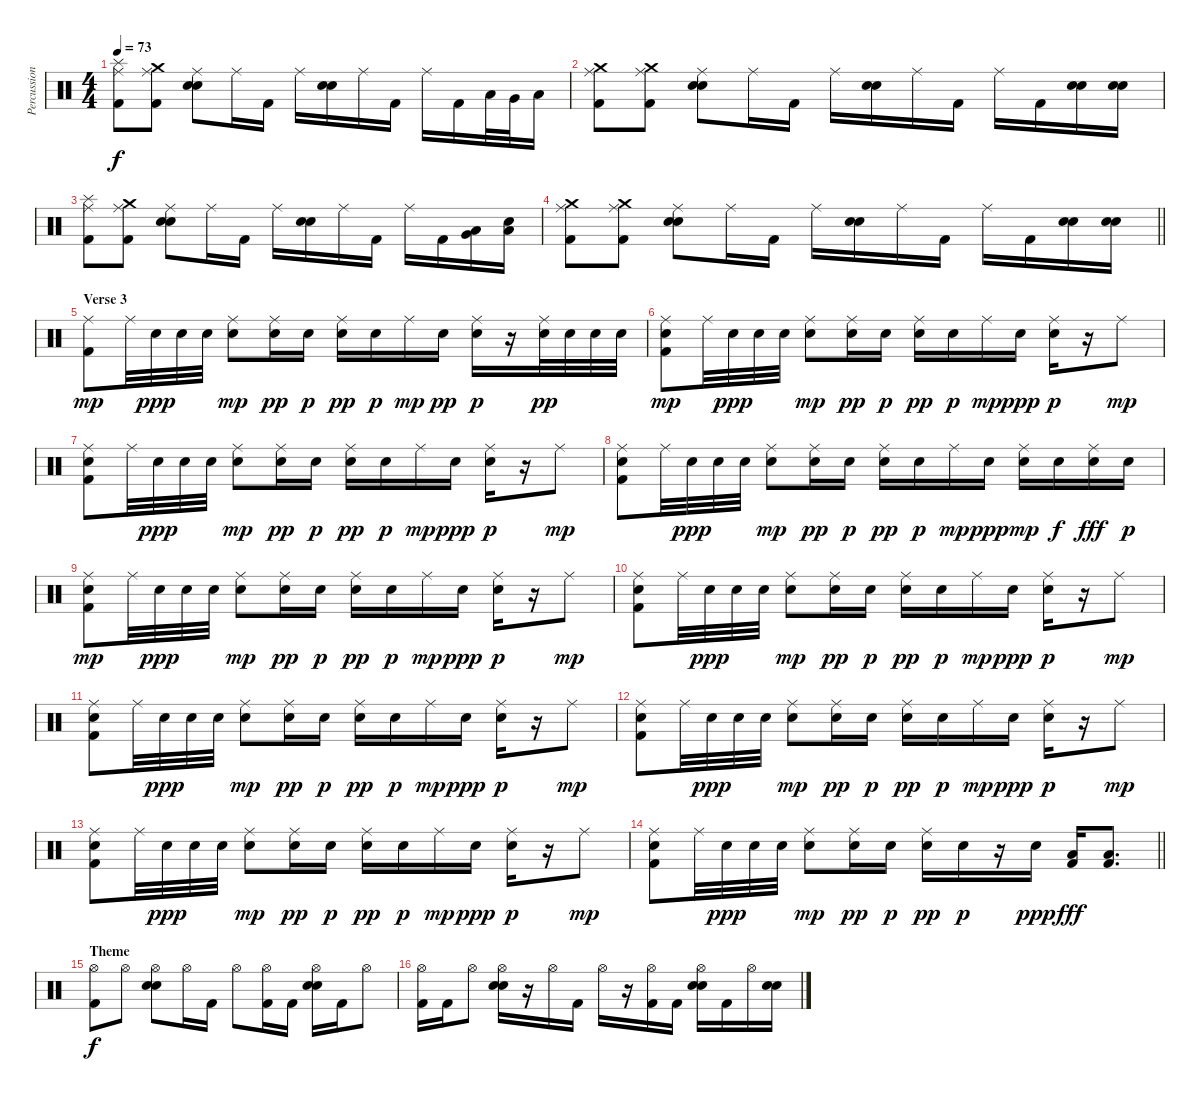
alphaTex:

\track ("Percussion" "Percussion") {instrument percussion}
\staff {score}
\articulation defaults
\ts (4 4)
\tempo 73
\clef neutral
\ks c
("Ride (middle)" "Splash (hit)" "Kick (hit) 2").8{dy f} ("Ride (middle)" "Crash medium (hit)" "Kick (hit) 2").8 ("Ride (middle)" "Electric Snare (hit)" "Snare (hit) 2").8 "Ride (middle)".16 "Kick (hit) 2".16 "Ride (middle)".16 ("Electric Snare (hit)" "Snare (hit) 2").16 "Ride (middle)".16 "Kick (hit) 2".16 "Ride (middle)".16 "Kick (hit) 2".16 "Low Tom (hit)".32 "Very Low Tom (hit)".32 "Low Floor Tom (hit)".16 |
("Ride (middle)" "Crash medium (hit)" "Kick (hit) 2").8 ("Ride (middle)" "Crash medium (hit)" "Kick (hit) 2").8 ("Ride (middle)" "Electric Snare (hit)" "Snare (hit) 2").8 "Ride (middle)".16 "Kick (hit) 2".16 "Ride (middle)".16 ("Electric Snare (hit)" "Snare (hit) 2").16 "Ride (middle)".16 "Kick (hit) 2".16 "Ride (middle)".16 "Kick (hit) 2".16 ("Electric Snare (hit)" "Snare (hit) 2").16 ("Electric Snare (hit)" "Snare (hit) 2").16 |
("Ride (middle)" "Splash (hit)" "Kick (hit) 2").8 ("Ride (middle)" "Crash medium (hit)" "Kick (hit) 2").8 ("Ride (middle)" "Electric Snare (hit)" "Snare (hit) 2").8 "Ride (middle)".16 "Kick (hit) 2".16 "Ride (middle)".16 ("Electric Snare (hit)" "Snare (hit) 2").16 "Ride (middle)".16 "Kick (hit) 2".16 "Ride (middle)".16 "Kick (hit) 2".16 ("Very Low Tom (hit)" "Low Floor Tom (hit)").16 ("Electric Snare (hit)" "Low Tom (hit)").16 |
\barLineRight lightlight
("Ride (middle)" "Crash medium (hit)" "Kick (hit) 2").8 ("Ride (middle)" "Crash medium (hit)" "Kick (hit) 2").8 ("Ride (middle)" "Electric Snare (hit)" "Snare (hit) 2").8 "Ride (middle)".16 "Kick (hit) 2".16 "Ride (middle)".16 ("Electric Snare (hit)" "Snare (hit) 2").16 "Ride (middle)".16 "Kick (hit) 2".16 "Ride (middle)".16 "Kick (hit) 2".16 ("Electric Snare (hit)" "Snare (hit) 2").16 ("Electric Snare (hit)" "Snare (hit) 2").16 |
\section ("" "Verse 3")
("Ride (middle)" "Kick (hit) 2").8{dy mp} "Ride (middle)".32 "Electric Snare (hit)".32{dy ppp} "Electric Snare (hit)".32 "Electric Snare (hit)".32 ("Ride (middle)" "Electric Snare (hit)").8{dy mp} ("Ride (middle)" "Electric Snare (hit)").16{dy pp} "Electric Snare (hit)".16{dy p} ("Ride (middle)" "Electric Snare (hit)").16{dy pp} "Electric Snare (hit)".16{dy p} "Ride (middle)".16{dy mp} "Electric Snare (hit)".16{dy pp} ("Ride (middle)" "Electric Snare (hit)").16{dy p} r.16 ("Ride (middle)" "Electric Snare (hit)").32{dy pp} "Electric Snare (hit)".32 "Electric Snare (hit)".32 "Electric Snare (hit)".32 |
("Ride (middle)" "Electric Snare (hit)" "Kick (hit) 2").8{dy mp} "Ride (middle)".32 "Electric Snare (hit)".32{dy ppp} "Electric Snare (hit)".32 "Electric Snare (hit)".32 ("Ride (middle)" "Electric Snare (hit)").8{dy mp} ("Ride (middle)" "Electric Snare (hit)").16{dy pp} "Electric Snare (hit)".16{dy p} ("Ride (middle)" "Electric Snare (hit)").16{dy pp} "Electric Snare (hit)".16{dy p} "Ride (middle)".16{dy mp} "Electric Snare (hit)".16{dy ppp} ("Ride (middle)" "Electric Snare (hit)").16{dy p} r.16 "Ride (middle)".8{dy mp} |
("Ride (middle)" "Electric Snare (hit)" "Kick (hit) 2").8 "Ride (middle)".32 "Electric Snare (hit)".32{dy ppp} "Electric Snare (hit)".32 "Electric Snare (hit)".32 ("Ride (middle)" "Electric Snare (hit)").8{dy mp} ("Ride (middle)" "Electric Snare (hit)").16{dy pp} "Electric Snare (hit)".16{dy p} ("Ride (middle)" "Electric Snare (hit)").16{dy pp} "Electric Snare (hit)".16{dy p} "Ride (middle)".16{dy mp} "Electric Snare (hit)".16{dy ppp} ("Ride (middle)" "Electric Snare (hit)").16{dy p} r.16 "Ride (middle)".8{dy mp} |
("Ride (middle)" "Electric Snare (hit)" "Kick (hit) 2").8 "Ride (middle)".32 "Electric Snare (hit)".32{dy ppp} "Electric Snare (hit)".32 "Electric Snare (hit)".32 ("Ride (middle)" "Electric Snare (hit)").8{dy mp} ("Ride (middle)" "Electric Snare (hit)").16{dy pp} "Electric Snare (hit)".16{dy p} ("Ride (middle)" "Electric Snare (hit)").16{dy pp} "Electric Snare (hit)".16{dy p} "Ride (middle)".16{dy mp} "Electric Snare (hit)".16{dy ppp} ("Ride (middle)" "Electric Snare (hit)").16{dy mp} "Electric Snare (hit)".16{dy f} ("Ride (middle)" "Electric Snare (hit)").16{dy fff} "Electric Snare (hit)".16{dy p} |
("Ride (middle)" "Electric Snare (hit)" "Kick (hit) 2").8{dy mp} "Ride (middle)".32 "Electric Snare (hit)".32{dy ppp} "Electric Snare (hit)".32 "Electric Snare (hit)".32 ("Ride (middle)" "Electric Snare (hit)").8{dy mp} ("Ride (middle)" "Electric Snare (hit)").16{dy pp} "Electric Snare (hit)".16{dy p} ("Ride (middle)" "Electric Snare (hit)").16{dy pp} "Electric Snare (hit)".16{dy p} "Ride (middle)".16{dy mp} "Electric Snare (hit)".16{dy ppp} ("Ride (middle)" "Electric Snare (hit)").16{dy p} r.16 "Ride (middle)".8{dy mp} |
("Ride (middle)" "Electric Snare (hit)" "Kick (hit) 2").8 "Ride (middle)".32 "Electric Snare (hit)".32{dy ppp} "Electric Snare (hit)".32 "Electric Snare (hit)".32 ("Ride (middle)" "Electric Snare (hit)").8{dy mp} ("Ride (middle)" "Electric Snare (hit)").16{dy pp} "Electric Snare (hit)".16{dy p} ("Ride (middle)" "Electric Snare (hit)").16{dy pp} "Electric Snare (hit)".16{dy p} "Ride (middle)".16{dy mp} "Electric Snare (hit)".16{dy ppp} ("Ride (middle)" "Electric Snare (hit)").16{dy p} r.16 "Ride (middle)".8{dy mp} |
("Ride (middle)" "Electric Snare (hit)" "Kick (hit) 2").8 "Ride (middle)".32 "Electric Snare (hit)".32{dy ppp} "Electric Snare (hit)".32 "Electric Snare (hit)".32 ("Ride (middle)" "Electric Snare (hit)").8{dy mp} ("Ride (middle)" "Electric Snare (hit)").16{dy pp} "Electric Snare (hit)".16{dy p} ("Ride (middle)" "Electric Snare (hit)").16{dy pp} "Electric Snare (hit)".16{dy p} "Ride (middle)".16{dy mp} "Electric Snare (hit)".16{dy ppp} ("Ride (middle)" "Electric Snare (hit)").16{dy p} r.16 "Ride (middle)".8{dy mp} |
("Ride (middle)" "Electric Snare (hit)" "Kick (hit) 2").8 "Ride (middle)".32 "Electric Snare (hit)".32{dy ppp} "Electric Snare (hit)".32 "Electric Snare (hit)".32 ("Ride (middle)" "Electric Snare (hit)").8{dy mp} ("Ride (middle)" "Electric Snare (hit)").16{dy pp} "Electric Snare (hit)".16{dy p} ("Ride (middle)" "Electric Snare (hit)").16{dy pp} "Electric Snare (hit)".16{dy p} "Ride (middle)".16{dy mp} "Electric Snare (hit)".16{dy ppp} ("Ride (middle)" "Electric Snare (hit)").16{dy p} r.16 "Ride (middle)".8{dy mp} |
("Ride (middle)" "Electric Snare (hit)" "Kick (hit) 2").8 "Ride (middle)".32 "Electric Snare (hit)".32{dy ppp} "Electric Snare (hit)".32 "Electric Snare (hit)".32 ("Ride (middle)" "Electric Snare (hit)").8{dy mp} ("Ride (middle)" "Electric Snare (hit)").16{dy pp} "Electric Snare (hit)".16{dy p} ("Ride (middle)" "Electric Snare (hit)").16{dy pp} "Electric Snare (hit)".16{dy p} "Ride (middle)".16{dy mp} "Electric Snare (hit)".16{dy ppp} ("Ride (middle)" "Electric Snare (hit)").16{dy p} r.16 "Ride (middle)".8{dy mp} |
\barLineRight lightlight
("Ride (middle)" "Electric Snare (hit)" "Kick (hit) 2").8 "Ride (middle)".32 "Electric Snare (hit)".32{dy ppp} "Electric Snare (hit)".32 "Electric Snare (hit)".32 ("Ride (middle)" "Electric Snare (hit)").8{dy mp} ("Ride (middle)" "Electric Snare (hit)").16{dy pp} "Electric Snare (hit)".16{dy p} ("Ride (middle)" "Electric Snare (hit)").16{dy pp} "Electric Snare (hit)".16{dy p} r.16 "Electric Snare (hit)".16{dy ppp} ("Low Floor Tom (hit)" "Kick (hit) 2").16{dy fff} ("Low Tom (hit)" "Kick (hit) 2").8{d} |
\section ("" "Theme")
("Hi-Hat (open)" "Kick (hit) 2").8{dy f} "Hi-Hat (open)".8 ("Hi-Hat (open)" "Electric Snare (hit)" "Snare (hit) 2").8 "Hi-Hat (open)".16 "Kick (hit) 2".16 "Hi-Hat (open)".8 ("Hi-Hat (open)" "Kick (hit) 2").16 "Kick (hit) 2".16 ("Hi-Hat (open)" "Electric Snare (hit)" "Snare (hit) 2").16 "Kick (hit) 2".16 "Hi-Hat (open)".8 |
("Hi-Hat (open)" "Kick (hit) 2").16 "Kick (hit) 2".16 "Hi-Hat (open)".8 ("Hi-Hat (open)" "Electric Snare (hit)" "Snare (hit) 2").16 r.16 "Hi-Hat (open)".16 "Kick (hit) 2".16 "Hi-Hat (open)".16 r.16 ("Hi-Hat (open)" "Kick (hit) 2").16 "Kick (hit) 2".16 ("Hi-Hat (open)" "Electric Snare (hit)" "Snare (hit) 2").16 "Kick (hit) 2".16 "Hi-Hat (open)".16 ("Electric Snare (hit)" "Snare (hit) 2").16
